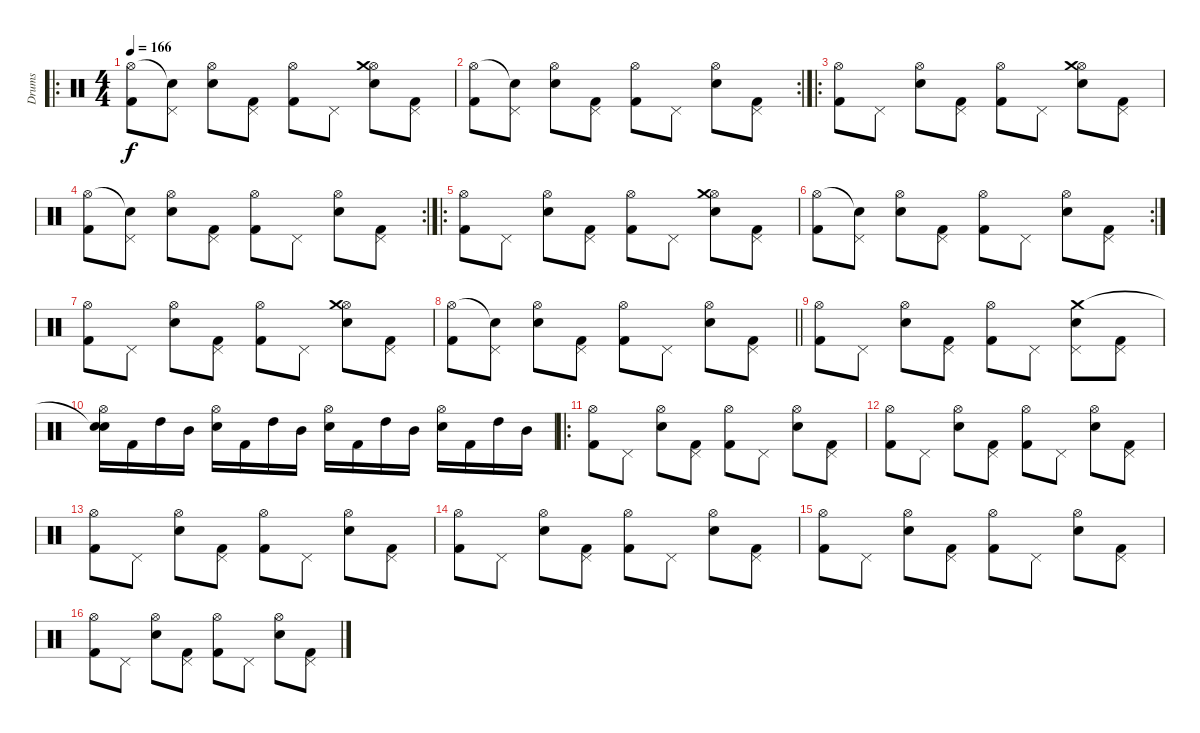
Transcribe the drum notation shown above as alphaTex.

\track ("Drums" "Drums") {instrument percussion}
\staff {score}
\articulation defaults
\ro
\ts (4 4)
\tempo 166
\clef neutral
\ks c
("Kick (hit) 2" "Hi-Hat (open)").8{dy f} ("Pedal Hi-Hat (hit)" "Snare (hit)"{t}).8 ("Snare (hit) 2" "Hi-Hat (open)").8 ("Kick (hit) 2" "Pedal Hi-Hat (hit)").8 ("Kick (hit) 2" "Hi-Hat (open)").8 "Pedal Hi-Hat (hit)".8 ("Snare (hit) 2" "Hi-Hat (open)" "Crash medium (hit)").8 ("Kick (hit) 2" "Pedal Hi-Hat (hit)").8 |
\rc 2
("Kick (hit) 2" "Hi-Hat (open)").8 ("Pedal Hi-Hat (hit)" "Snare (hit)"{t}).8 ("Snare (hit) 2" "Hi-Hat (open)").8 ("Kick (hit) 2" "Pedal Hi-Hat (hit)").8 ("Kick (hit) 2" "Hi-Hat (open)").8 "Pedal Hi-Hat (hit)".8 ("Snare (hit) 2" "Hi-Hat (open)").8 ("Kick (hit) 2" "Pedal Hi-Hat (hit)").8 |
\ro
("Kick (hit) 2" "Hi-Hat (open)").8 "Pedal Hi-Hat (hit)".8 ("Snare (hit) 2" "Hi-Hat (open)").8 ("Kick (hit) 2" "Pedal Hi-Hat (hit)").8 ("Kick (hit) 2" "Hi-Hat (open)").8 "Pedal Hi-Hat (hit)".8 ("Snare (hit) 2" "Hi-Hat (open)" "Crash medium (hit)").8 ("Kick (hit) 2" "Pedal Hi-Hat (hit)").8 |
\rc 2
("Kick (hit) 2" "Hi-Hat (open)").8 ("Pedal Hi-Hat (hit)" "Snare (hit)"{t}).8 ("Snare (hit) 2" "Hi-Hat (open)").8 ("Kick (hit) 2" "Pedal Hi-Hat (hit)").8 ("Kick (hit) 2" "Hi-Hat (open)").8 "Pedal Hi-Hat (hit)".8 ("Snare (hit) 2" "Hi-Hat (open)").8 ("Kick (hit) 2" "Pedal Hi-Hat (hit)").8 |
\ro
("Kick (hit) 2" "Hi-Hat (open)").8 "Pedal Hi-Hat (hit)".8 ("Snare (hit) 2" "Hi-Hat (open)").8 ("Kick (hit) 2" "Pedal Hi-Hat (hit)").8 ("Kick (hit) 2" "Hi-Hat (open)").8 "Pedal Hi-Hat (hit)".8 ("Snare (hit) 2" "Hi-Hat (open)" "Crash medium (hit)").8 ("Kick (hit) 2" "Pedal Hi-Hat (hit)").8 |
\rc 2
("Kick (hit) 2" "Hi-Hat (open)").8 ("Pedal Hi-Hat (hit)" "Snare (hit)"{t}).8 ("Snare (hit) 2" "Hi-Hat (open)").8 ("Kick (hit) 2" "Pedal Hi-Hat (hit)").8 ("Kick (hit) 2" "Hi-Hat (open)").8 "Pedal Hi-Hat (hit)".8 ("Snare (hit) 2" "Hi-Hat (open)").8 ("Kick (hit) 2" "Pedal Hi-Hat (hit)").8 |
("Kick (hit) 2" "Hi-Hat (open)").8 "Pedal Hi-Hat (hit)".8 ("Snare (hit) 2" "Hi-Hat (open)").8 ("Kick (hit) 2" "Pedal Hi-Hat (hit)").8 ("Kick (hit) 2" "Hi-Hat (open)").8 "Pedal Hi-Hat (hit)".8 ("Snare (hit) 2" "Hi-Hat (open)" "Crash medium (hit)").8 ("Kick (hit) 2" "Pedal Hi-Hat (hit)").8 |
\barLineRight lightlight
("Kick (hit) 2" "Hi-Hat (open)").8 ("Pedal Hi-Hat (hit)" "Snare (hit)"{t}).8 ("Snare (hit) 2" "Hi-Hat (open)").8 ("Kick (hit) 2" "Pedal Hi-Hat (hit)").8 ("Kick (hit) 2" "Hi-Hat (open)").8 "Pedal Hi-Hat (hit)".8 ("Snare (hit) 2" "Hi-Hat (open)").8 ("Kick (hit) 2" "Pedal Hi-Hat (hit)").8 |
("Kick (hit) 2" "Hi-Hat (open)").8 "Pedal Hi-Hat (hit)".8 ("Snare (hit) 2" "Hi-Hat (open)").8 ("Kick (hit) 2" "Pedal Hi-Hat (hit)").8 ("Kick (hit) 2" "Hi-Hat (open)").8 "Pedal Hi-Hat (hit)".8 ("Snare (hit) 2" "Pedal Hi-Hat (hit)" "Crash medium (hit)").8 ("Kick (hit) 2" "Pedal Hi-Hat (hit)").8 |
("Snare (hit) 2" "Hi-Hat (open)" "Snare (hit)"{t}).16 "Kick (hit) 2".16 "High Tom (hit)".16 "Mid Tom (hit)".16 ("Snare (hit) 2" "Hi-Hat (open)").16 "Kick (hit) 2".16 "High Tom (hit)".16 "Mid Tom (hit)".16 ("Snare (hit) 2" "Hi-Hat (open)").16 "Kick (hit) 2".16 "High Tom (hit)".16 "Mid Tom (hit)".16 ("Snare (hit) 2" "Hi-Hat (open)").16 "Kick (hit) 2".16 "High Tom (hit)".16 "Mid Tom (hit)".16 |
\ro
("Kick (hit) 2" "Hi-Hat (open)").8 "Pedal Hi-Hat (hit)".8 ("Snare (hit) 2" "Hi-Hat (open)").8 ("Kick (hit) 2" "Pedal Hi-Hat (hit)").8 ("Kick (hit) 2" "Hi-Hat (open)").8 "Pedal Hi-Hat (hit)".8 ("Snare (hit) 2" "Hi-Hat (open)").8 ("Kick (hit) 2" "Pedal Hi-Hat (hit)").8 |
("Kick (hit) 2" "Hi-Hat (open)").8 "Pedal Hi-Hat (hit)".8 ("Snare (hit) 2" "Hi-Hat (open)").8 ("Kick (hit) 2" "Pedal Hi-Hat (hit)").8 ("Kick (hit) 2" "Hi-Hat (open)").8 "Pedal Hi-Hat (hit)".8 ("Snare (hit) 2" "Hi-Hat (open)").8 ("Kick (hit) 2" "Pedal Hi-Hat (hit)").8 |
("Kick (hit) 2" "Hi-Hat (open)").8 "Pedal Hi-Hat (hit)".8 ("Snare (hit) 2" "Hi-Hat (open)").8 ("Kick (hit) 2" "Pedal Hi-Hat (hit)").8 ("Kick (hit) 2" "Hi-Hat (open)").8 "Pedal Hi-Hat (hit)".8 ("Snare (hit) 2" "Hi-Hat (open)").8 ("Kick (hit) 2" "Pedal Hi-Hat (hit)").8 |
("Kick (hit) 2" "Hi-Hat (open)").8 "Pedal Hi-Hat (hit)".8 ("Snare (hit) 2" "Hi-Hat (open)").8 ("Kick (hit) 2" "Pedal Hi-Hat (hit)").8 ("Kick (hit) 2" "Hi-Hat (open)").8 "Pedal Hi-Hat (hit)".8 ("Snare (hit) 2" "Hi-Hat (open)").8 ("Kick (hit) 2" "Pedal Hi-Hat (hit)").8 |
("Kick (hit) 2" "Hi-Hat (open)").8 "Pedal Hi-Hat (hit)".8 ("Snare (hit) 2" "Hi-Hat (open)").8 ("Kick (hit) 2" "Pedal Hi-Hat (hit)").8 ("Kick (hit) 2" "Hi-Hat (open)").8 "Pedal Hi-Hat (hit)".8 ("Snare (hit) 2" "Hi-Hat (open)").8 ("Kick (hit) 2" "Pedal Hi-Hat (hit)").8 |
("Kick (hit) 2" "Hi-Hat (open)").8 "Pedal Hi-Hat (hit)".8 ("Snare (hit) 2" "Hi-Hat (open)").8 ("Kick (hit) 2" "Pedal Hi-Hat (hit)").8 ("Kick (hit) 2" "Hi-Hat (open)").8 "Pedal Hi-Hat (hit)".8 ("Snare (hit) 2" "Hi-Hat (open)").8 ("Kick (hit) 2" "Pedal Hi-Hat (hit)").8
